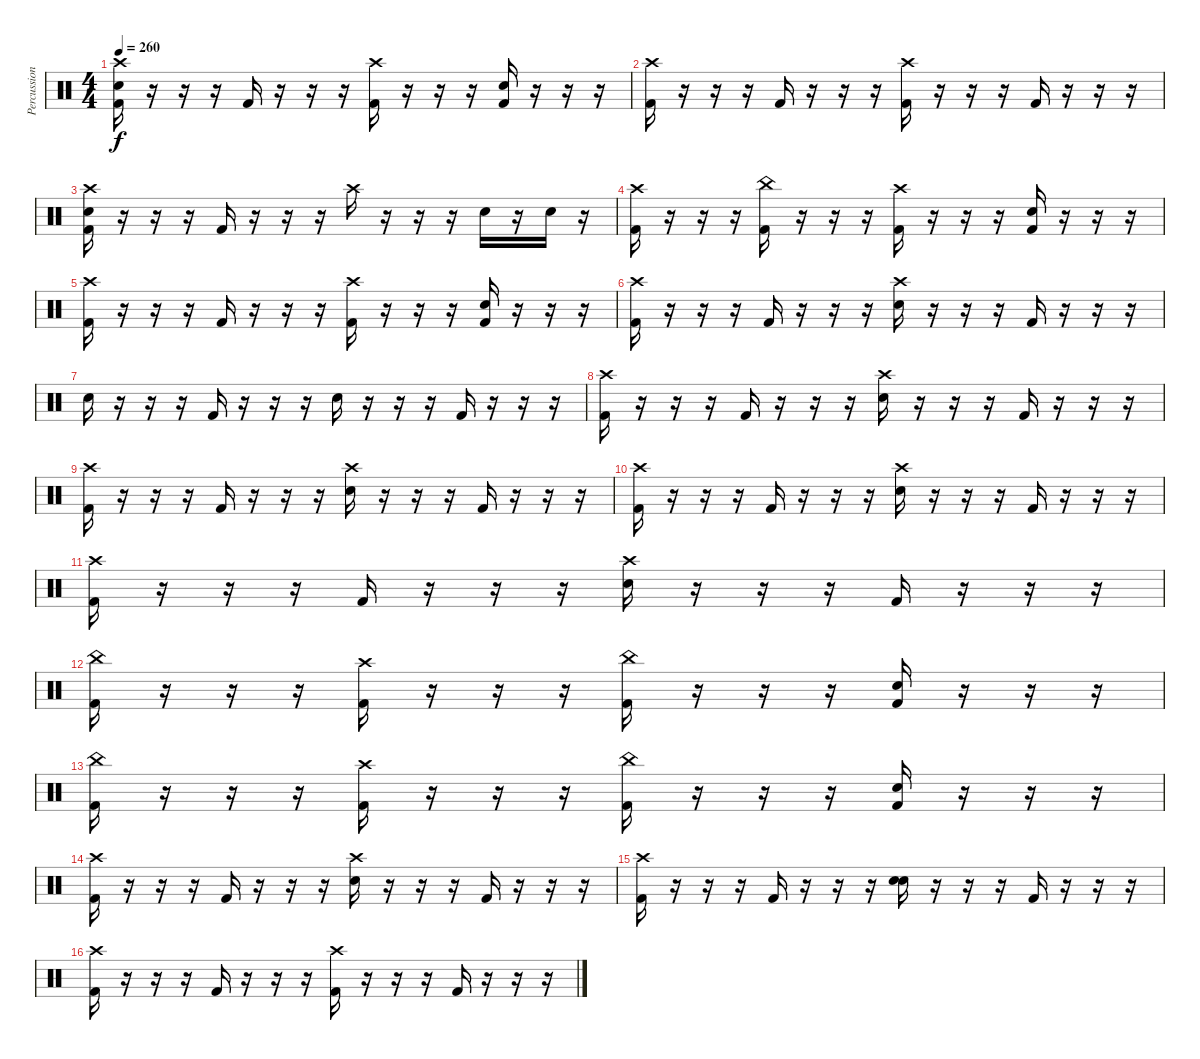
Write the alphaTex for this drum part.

\track ("Percussion" "Percussion") {instrument percussion}
\staff {score}
\articulation defaults
\ts (4 4)
\tempo 260
\clef neutral
\ks c
("Kick (hit) 2" "Snare (hit) 2" "Crash high (hit)").16{dy f} r.16 r.16 r.16 "Kick (hit) 2".16 r.16 r.16 r.16 ("Kick (hit) 2" "Crash high (hit)").16 r.16 r.16 r.16 ("Kick (hit) 2" "Snare (hit) 2").16 r.16 r.16 r.16 |
("Kick (hit) 2" "Crash high (hit)").16 r.16 r.16 r.16 "Kick (hit) 2".16 r.16 r.16 r.16 ("Kick (hit) 2" "Crash high (hit)").16 r.16 r.16 r.16 "Kick (hit) 2".16 r.16 r.16 r.16 |
("Kick (hit) 2" "Snare (hit) 2" "Crash high (hit)").16 r.16 r.16 r.16 "Kick (hit) 2".16 r.16 r.16 r.16 "Crash high (hit)".16 r.16 r.16 r.16 "Snare (hit) 2".16 r.16 "Snare (hit) 2".16 r.16 |
("Kick (hit) 2" "Crash high (hit)").16 r.16 r.16 r.16 ("Kick (hit) 2" "China (hit)").16 r.16 r.16 r.16 ("Kick (hit) 2" "Crash high (hit)").16 r.16 r.16 r.16 ("Kick (hit) 2" "Snare (hit) 2").16 r.16 r.16 r.16 |
("Kick (hit) 2" "Crash high (hit)").16 r.16 r.16 r.16 "Kick (hit) 2".16 r.16 r.16 r.16 ("Kick (hit) 2" "Crash high (hit)").16 r.16 r.16 r.16 ("Kick (hit) 2" "Snare (hit) 2").16 r.16 r.16 r.16 |
("Kick (hit) 2" "Crash high (hit)").16 r.16 r.16 r.16 "Kick (hit) 2".16 r.16 r.16 r.16 ("Snare (hit) 2" "Crash high (hit)").16 r.16 r.16 r.16 "Kick (hit) 2".16 r.16 r.16 r.16 |
"Snare (hit) 2".16 r.16 r.16 r.16 "Kick (hit) 2".16 r.16 r.16 r.16 "Snare (hit) 2".16 r.16 r.16 r.16 "Kick (hit) 2".16 r.16 r.16 r.16 |
("Kick (hit) 2" "Crash high (hit)").16 r.16 r.16 r.16 "Kick (hit) 2".16 r.16 r.16 r.16 ("Snare (hit) 2" "Crash high (hit)").16 r.16 r.16 r.16 "Kick (hit) 2".16 r.16 r.16 r.16 |
("Kick (hit) 2" "Crash high (hit)").16 r.16 r.16 r.16 "Kick (hit) 2".16 r.16 r.16 r.16 ("Snare (hit) 2" "Crash high (hit)").16 r.16 r.16 r.16 "Kick (hit) 2".16 r.16 r.16 r.16 |
("Kick (hit) 2" "Crash high (hit)").16 r.16 r.16 r.16 "Kick (hit) 2".16 r.16 r.16 r.16 ("Snare (hit) 2" "Crash high (hit)").16 r.16 r.16 r.16 "Kick (hit) 2".16 r.16 r.16 r.16 |
("Kick (hit) 2" "Crash high (hit)").16 r.16 r.16 r.16 "Kick (hit) 2".16 r.16 r.16 r.16 ("Snare (hit) 2" "Crash high (hit)").16 r.16 r.16 r.16 "Kick (hit) 2".16 r.16 r.16 r.16 |
("Kick (hit) 2" "China (hit)").16 r.16 r.16 r.16 ("Kick (hit) 2" "Crash high (hit)").16 r.16 r.16 r.16 ("Kick (hit) 2" "China (hit)").16 r.16 r.16 r.16 ("Kick (hit) 2" "Snare (hit) 2").16 r.16 r.16 r.16 |
("Kick (hit) 2" "China (hit)").16 r.16 r.16 r.16 ("Kick (hit) 2" "Crash high (hit)").16 r.16 r.16 r.16 ("Kick (hit) 2" "China (hit)").16 r.16 r.16 r.16 ("Kick (hit) 2" "Snare (hit) 2").16 r.16 r.16 r.16 |
("Kick (hit) 2" "Crash high (hit)").16 r.16 r.16 r.16 "Kick (hit) 2".16 r.16 r.16 r.16 ("Snare (hit) 2" "Crash high (hit)").16 r.16 r.16 r.16 "Kick (hit) 2".16 r.16 r.16 r.16 |
("Kick (hit) 2" "Crash high (hit)").16 r.16 r.16 r.16 "Kick (hit) 2".16 r.16 r.16 r.16 ("Snare (hit) 2" "Hand Clap (hit)").16 r.16 r.16 r.16 "Kick (hit) 2".16 r.16 r.16 r.16 |
("Kick (hit) 2" "Crash high (hit)").16 r.16 r.16 r.16 "Kick (hit) 2".16 r.16 r.16 r.16 ("Kick (hit) 2" "Crash high (hit)").16 r.16 r.16 r.16 "Kick (hit) 2".16 r.16 r.16 r.16
